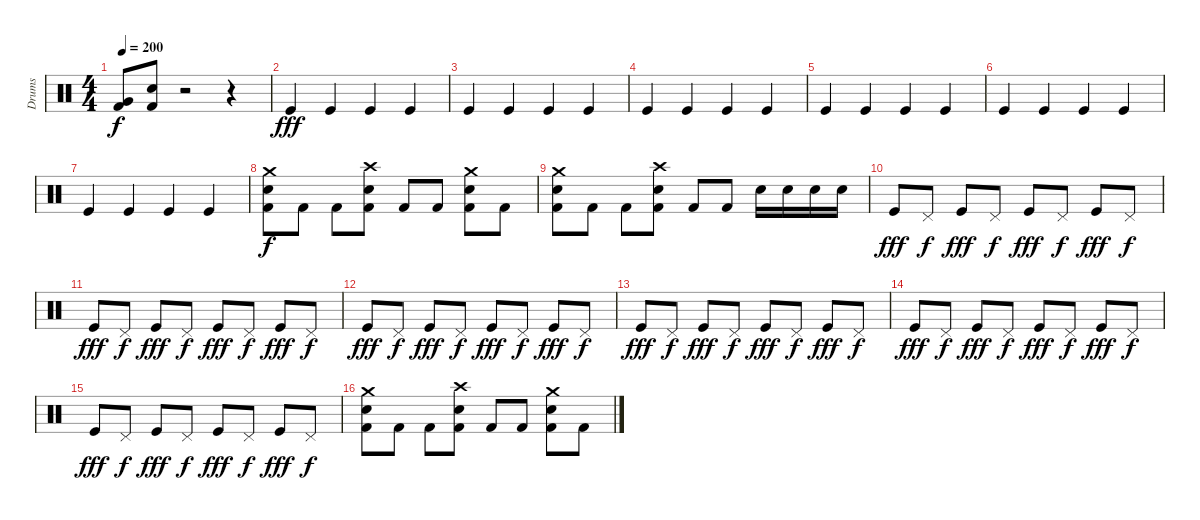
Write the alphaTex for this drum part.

\track ("Drums" "Drums") {instrument percussion}
\staff {score}
\articulation defaults
\ts (4 4)
\tempo 200
\clef neutral
\ks c
("Kick (hit) 2" "Very Low Tom (hit)").8{dy f} ("Kick (hit) 2" "Electric Snare (hit)").8 r.2 r.4 |
\section ("" "")
"Kick (hit)".4{dy fff} "Kick (hit)".4 "Kick (hit)".4 "Kick (hit)".4 |
"Kick (hit)".4 "Kick (hit)".4 "Kick (hit)".4 "Kick (hit)".4 |
"Kick (hit)".4 "Kick (hit)".4 "Kick (hit)".4 "Kick (hit)".4 |
"Kick (hit)".4 "Kick (hit)".4 "Kick (hit)".4 "Kick (hit)".4 |
"Kick (hit)".4 "Kick (hit)".4 "Kick (hit)".4 "Kick (hit)".4 |
"Kick (hit)".4 "Kick (hit)".4 "Kick (hit)".4 "Kick (hit)".4 |
("Kick (hit) 2" "Electric Snare (hit)" "Crash medium (hit)").8{dy f} "Kick (hit) 2".8 "Kick (hit) 2".8 ("Kick (hit) 2" "Electric Snare (hit)" "Crash high (hit)").8 "Kick (hit) 2".8 "Kick (hit) 2".8 ("Kick (hit) 2" "Electric Snare (hit)" "Crash medium (hit)").8 "Kick (hit) 2".8 |
("Kick (hit) 2" "Electric Snare (hit)" "Crash medium (hit)").8 "Kick (hit) 2".8 "Kick (hit) 2".8 ("Kick (hit) 2" "Electric Snare (hit)" "Crash high (hit)").8 "Kick (hit) 2".8 "Kick (hit) 2".8 "Electric Snare (hit)".16 "Electric Snare (hit)".16 "Electric Snare (hit)".16 "Electric Snare (hit)".16 |
\section ("" "")
"Kick (hit)".8{dy fff} "Pedal Hi-Hat (hit)".8{dy f} "Kick (hit)".8{dy fff} "Pedal Hi-Hat (hit)".8{dy f} "Kick (hit)".8{dy fff} "Pedal Hi-Hat (hit)".8{dy f} "Kick (hit)".8{dy fff} "Pedal Hi-Hat (hit)".8{dy f} |
"Kick (hit)".8{dy fff} "Pedal Hi-Hat (hit)".8{dy f} "Kick (hit)".8{dy fff} "Pedal Hi-Hat (hit)".8{dy f} "Kick (hit)".8{dy fff} "Pedal Hi-Hat (hit)".8{dy f} "Kick (hit)".8{dy fff} "Pedal Hi-Hat (hit)".8{dy f} |
"Kick (hit)".8{dy fff} "Pedal Hi-Hat (hit)".8{dy f} "Kick (hit)".8{dy fff} "Pedal Hi-Hat (hit)".8{dy f} "Kick (hit)".8{dy fff} "Pedal Hi-Hat (hit)".8{dy f} "Kick (hit)".8{dy fff} "Pedal Hi-Hat (hit)".8{dy f} |
"Kick (hit)".8{dy fff} "Pedal Hi-Hat (hit)".8{dy f} "Kick (hit)".8{dy fff} "Pedal Hi-Hat (hit)".8{dy f} "Kick (hit)".8{dy fff} "Pedal Hi-Hat (hit)".8{dy f} "Kick (hit)".8{dy fff} "Pedal Hi-Hat (hit)".8{dy f} |
"Kick (hit)".8{dy fff} "Pedal Hi-Hat (hit)".8{dy f} "Kick (hit)".8{dy fff} "Pedal Hi-Hat (hit)".8{dy f} "Kick (hit)".8{dy fff} "Pedal Hi-Hat (hit)".8{dy f} "Kick (hit)".8{dy fff} "Pedal Hi-Hat (hit)".8{dy f} |
"Kick (hit)".8{dy fff} "Pedal Hi-Hat (hit)".8{dy f} "Kick (hit)".8{dy fff} "Pedal Hi-Hat (hit)".8{dy f} "Kick (hit)".8{dy fff} "Pedal Hi-Hat (hit)".8{dy f} "Kick (hit)".8{dy fff} "Pedal Hi-Hat (hit)".8{dy f} |
("Kick (hit) 2" "Electric Snare (hit)" "Crash medium (hit)").8 "Kick (hit) 2".8 "Kick (hit) 2".8 ("Kick (hit) 2" "Electric Snare (hit)" "Crash high (hit)").8 "Kick (hit) 2".8 "Kick (hit) 2".8 ("Kick (hit) 2" "Electric Snare (hit)" "Crash medium (hit)").8 "Kick (hit) 2".8
